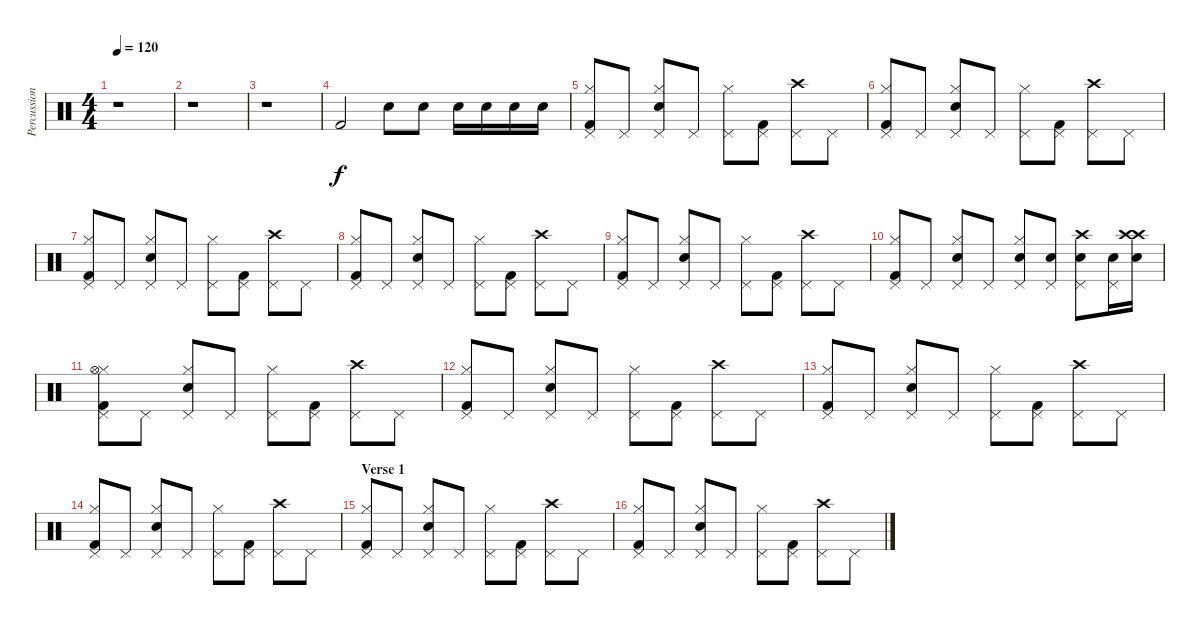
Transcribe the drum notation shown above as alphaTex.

\track ("Percussion" "Percussion") {instrument percussion}
\staff {score}
\articulation defaults
\ts (4 4)
\tempo 120
\clef neutral
\ks c
r.1{dy f} |
r.1 |
r.1 |
"Kick (hit) 2".2 "Snare (hit) 2".8 "Snare (hit) 2".8 "Snare (hit) 2".16 "Snare (hit) 2".16 "Snare (hit) 2".16 "Snare (hit) 2".16 |
("Hi-Hat (closed)" "Pedal Hi-Hat (hit)" "Kick (hit) 2").8 "Pedal Hi-Hat (hit)".8 ("Hi-Hat (closed)" "Pedal Hi-Hat (hit)" "Snare (hit) 2").8 "Pedal Hi-Hat (hit)".8 ("Hi-Hat (closed)" "Pedal Hi-Hat (hit)").8 ("Pedal Hi-Hat (hit)" "Kick (hit) 2").8 ("Crash high (hit)" "Pedal Hi-Hat (hit)").8 "Pedal Hi-Hat (hit)".8 |
("Hi-Hat (closed)" "Pedal Hi-Hat (hit)" "Kick (hit) 2").8 "Pedal Hi-Hat (hit)".8 ("Hi-Hat (closed)" "Pedal Hi-Hat (hit)" "Snare (hit) 2").8 "Pedal Hi-Hat (hit)".8 ("Hi-Hat (closed)" "Pedal Hi-Hat (hit)").8 ("Pedal Hi-Hat (hit)" "Kick (hit) 2").8 ("Crash high (hit)" "Pedal Hi-Hat (hit)").8 "Pedal Hi-Hat (hit)".8 |
("Hi-Hat (closed)" "Pedal Hi-Hat (hit)" "Kick (hit) 2").8 "Pedal Hi-Hat (hit)".8 ("Hi-Hat (closed)" "Pedal Hi-Hat (hit)" "Snare (hit) 2").8 "Pedal Hi-Hat (hit)".8 ("Hi-Hat (closed)" "Pedal Hi-Hat (hit)").8 ("Pedal Hi-Hat (hit)" "Kick (hit) 2").8 ("Crash high (hit)" "Pedal Hi-Hat (hit)").8 "Pedal Hi-Hat (hit)".8 |
("Hi-Hat (closed)" "Pedal Hi-Hat (hit)" "Kick (hit) 2").8 "Pedal Hi-Hat (hit)".8 ("Hi-Hat (closed)" "Pedal Hi-Hat (hit)" "Snare (hit) 2").8 "Pedal Hi-Hat (hit)".8 ("Hi-Hat (closed)" "Pedal Hi-Hat (hit)").8 ("Pedal Hi-Hat (hit)" "Kick (hit) 2").8 ("Crash high (hit)" "Pedal Hi-Hat (hit)").8 "Pedal Hi-Hat (hit)".8 |
("Hi-Hat (closed)" "Pedal Hi-Hat (hit)" "Kick (hit) 2").8 "Pedal Hi-Hat (hit)".8 ("Hi-Hat (closed)" "Pedal Hi-Hat (hit)" "Snare (hit) 2").8 "Pedal Hi-Hat (hit)".8 ("Hi-Hat (closed)" "Pedal Hi-Hat (hit)").8 ("Pedal Hi-Hat (hit)" "Kick (hit) 2").8 ("Crash high (hit)" "Pedal Hi-Hat (hit)").8 "Pedal Hi-Hat (hit)".8 |
("Hi-Hat (closed)" "Pedal Hi-Hat (hit)" "Kick (hit) 2").8 "Pedal Hi-Hat (hit)".8 ("Hi-Hat (closed)" "Pedal Hi-Hat (hit)" "Snare (hit) 2").8 "Pedal Hi-Hat (hit)".8 ("Hi-Hat (closed)" "Pedal Hi-Hat (hit)" "Snare (hit) 2").8 ("Pedal Hi-Hat (hit)" "Snare (hit) 2").8 ("Crash high (hit)" "Pedal Hi-Hat (hit)" "Snare (hit) 2").8 ("Pedal Hi-Hat (hit)" "Snare (hit) 2").16 ("Crash high (hit)" "Crash high (hit)" "Snare (hit) 2").16 |
("Hi-Hat (closed)" "Pedal Hi-Hat (hit)" "Kick (hit) 2" "Hi-Hat (open)").8 "Pedal Hi-Hat (hit)".8 ("Hi-Hat (closed)" "Pedal Hi-Hat (hit)" "Snare (hit) 2").8 "Pedal Hi-Hat (hit)".8 ("Hi-Hat (closed)" "Pedal Hi-Hat (hit)").8 ("Pedal Hi-Hat (hit)" "Kick (hit) 2").8 ("Crash high (hit)" "Pedal Hi-Hat (hit)").8 "Pedal Hi-Hat (hit)".8 |
("Hi-Hat (closed)" "Pedal Hi-Hat (hit)" "Kick (hit) 2").8 "Pedal Hi-Hat (hit)".8 ("Hi-Hat (closed)" "Pedal Hi-Hat (hit)" "Snare (hit) 2").8 "Pedal Hi-Hat (hit)".8 ("Hi-Hat (closed)" "Pedal Hi-Hat (hit)").8 ("Pedal Hi-Hat (hit)" "Kick (hit) 2").8 ("Crash high (hit)" "Pedal Hi-Hat (hit)").8 "Pedal Hi-Hat (hit)".8 |
("Hi-Hat (closed)" "Pedal Hi-Hat (hit)" "Kick (hit) 2").8 "Pedal Hi-Hat (hit)".8 ("Hi-Hat (closed)" "Pedal Hi-Hat (hit)" "Snare (hit) 2").8 "Pedal Hi-Hat (hit)".8 ("Hi-Hat (closed)" "Pedal Hi-Hat (hit)").8 ("Pedal Hi-Hat (hit)" "Kick (hit) 2").8 ("Crash high (hit)" "Pedal Hi-Hat (hit)").8 "Pedal Hi-Hat (hit)".8 |
("Hi-Hat (closed)" "Pedal Hi-Hat (hit)" "Kick (hit) 2").8 "Pedal Hi-Hat (hit)".8 ("Hi-Hat (closed)" "Pedal Hi-Hat (hit)" "Snare (hit) 2").8 "Pedal Hi-Hat (hit)".8 ("Hi-Hat (closed)" "Pedal Hi-Hat (hit)").8 ("Pedal Hi-Hat (hit)" "Kick (hit) 2").8 ("Crash high (hit)" "Pedal Hi-Hat (hit)").8 "Pedal Hi-Hat (hit)".8 |
\section ("" "Verse 1")
("Hi-Hat (closed)" "Pedal Hi-Hat (hit)" "Kick (hit) 2").8 "Pedal Hi-Hat (hit)".8 ("Hi-Hat (closed)" "Pedal Hi-Hat (hit)" "Snare (hit) 2").8 "Pedal Hi-Hat (hit)".8 ("Hi-Hat (closed)" "Pedal Hi-Hat (hit)").8 ("Pedal Hi-Hat (hit)" "Kick (hit) 2").8 ("Crash high (hit)" "Pedal Hi-Hat (hit)").8 "Pedal Hi-Hat (hit)".8 |
("Hi-Hat (closed)" "Pedal Hi-Hat (hit)" "Kick (hit) 2").8 "Pedal Hi-Hat (hit)".8 ("Hi-Hat (closed)" "Pedal Hi-Hat (hit)" "Snare (hit) 2").8 "Pedal Hi-Hat (hit)".8 ("Hi-Hat (closed)" "Pedal Hi-Hat (hit)").8 ("Pedal Hi-Hat (hit)" "Kick (hit) 2").8 ("Crash high (hit)" "Pedal Hi-Hat (hit)").8 "Pedal Hi-Hat (hit)".8
